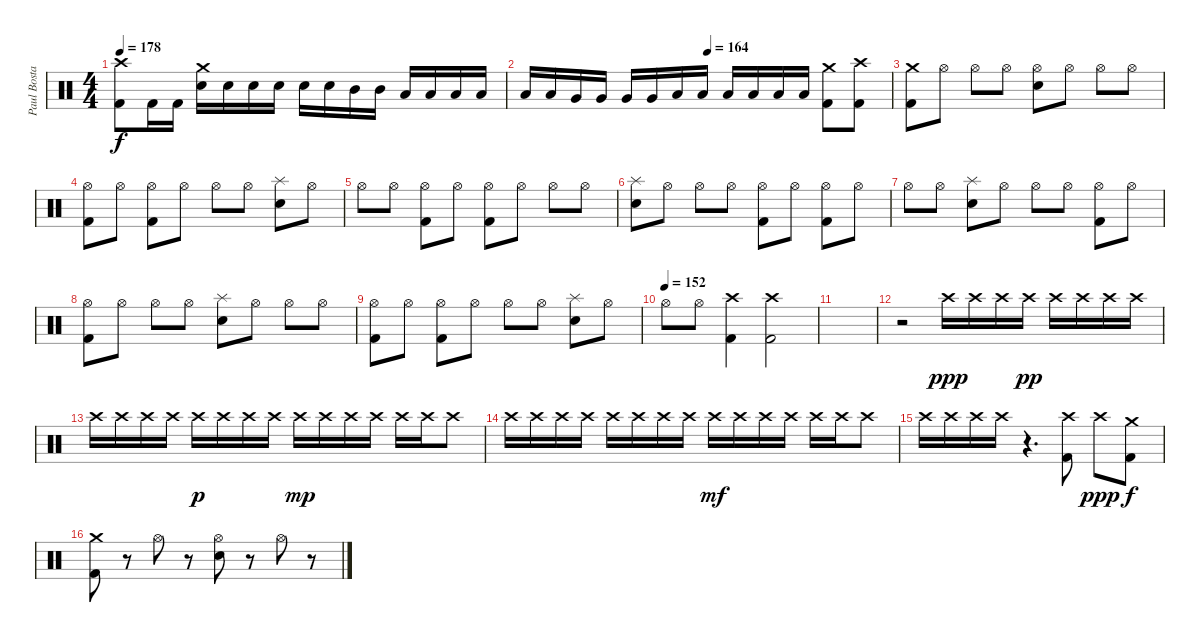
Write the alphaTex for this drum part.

\track ("Paul Bostaph" "Paul Bosta") {instrument percussion}
\staff {score}
\articulation defaults
\ts (4 4)
\tempo 178
\clef neutral
\ks c
("Kick (hit) 2" "Crash high (hit)").8{dy f} "Kick (hit) 2".16 "Kick (hit) 2".16 ("Crash medium (hit)" "Electric Snare (hit)").16 "Electric Snare (hit)".16 "Electric Snare (hit)".16 "Electric Snare (hit)".16 "Electric Snare (hit)".16 "Electric Snare (hit)".16 "Mid Tom (hit)".16 "Mid Tom (hit)".16 "Low Tom (hit)".16 "Low Tom (hit)".16 "Low Tom (hit)".16 "Low Tom (hit)".16 |
\tempo (164 0.5)
"Low Tom (hit)".16 "Low Tom (hit)".16 "Very Low Tom (hit)".16 "Very Low Tom (hit)".16 "Very Low Tom (hit)".16 "Very Low Tom (hit)".16 "Low Floor Tom (hit)".16 "Low Floor Tom (hit)".16 "Low Floor Tom (hit)".16 "Low Floor Tom (hit)".16 "Low Floor Tom (hit)".16 "Low Floor Tom (hit)".16 ("Crash medium (hit)" "Kick (hit) 2").8 ("Crash high (hit)" "Kick (hit) 2").8 |
("Kick (hit) 2" "Crash medium (hit)").8 "Hi-Hat (open)".8 "Hi-Hat (open)".8 "Hi-Hat (open)".8 ("Electric Snare (hit)" "Hi-Hat (open)").8 "Hi-Hat (open)".8 "Hi-Hat (open)".8 "Hi-Hat (open)".8 |
("Kick (hit) 2" "Hi-Hat (open)").8 "Hi-Hat (open)".8 ("Kick (hit) 2" "Hi-Hat (open)").8 "Hi-Hat (open)".8 "Hi-Hat (open)".8 "Hi-Hat (open)".8 ("Electric Snare (hit)" "Splash (hit)").8 "Hi-Hat (open)".8 |
"Hi-Hat (open)".8 "Hi-Hat (open)".8 ("Kick (hit) 2" "Hi-Hat (open)").8 "Hi-Hat (open)".8 ("Kick (hit) 2" "Hi-Hat (open)").8 "Hi-Hat (open)".8 "Hi-Hat (open)".8 "Hi-Hat (open)".8 |
("Electric Snare (hit)" "Splash (hit)").8 "Hi-Hat (open)".8 "Hi-Hat (open)".8 "Hi-Hat (open)".8 ("Kick (hit) 2" "Hi-Hat (open)").8 "Hi-Hat (open)".8 ("Kick (hit) 2" "Hi-Hat (open)").8 "Hi-Hat (open)".8 |
"Hi-Hat (open)".8 "Hi-Hat (open)".8 ("Electric Snare (hit)" "Splash (hit)").8 "Hi-Hat (open)".8 "Hi-Hat (open)".8 "Hi-Hat (open)".8 ("Kick (hit) 2" "Hi-Hat (open)").8 "Hi-Hat (open)".8 |
("Kick (hit) 2" "Hi-Hat (open)").8 "Hi-Hat (open)".8 "Hi-Hat (open)".8 "Hi-Hat (open)".8 ("Electric Snare (hit)" "Splash (hit)").8 "Hi-Hat (open)".8 "Hi-Hat (open)".8 "Hi-Hat (open)".8 |
("Kick (hit) 2" "Hi-Hat (open)").8 "Hi-Hat (open)".8 ("Kick (hit) 2" "Hi-Hat (open)").8 "Hi-Hat (open)".8 "Hi-Hat (open)".8 "Hi-Hat (open)".8 ("Electric Snare (hit)" "Splash (hit)").8 "Hi-Hat (open)".8 |
\tempo (152)
"Hi-Hat (open)".8 "Hi-Hat (open)".8 ("Crash high (hit)" "Kick (hit) 2").4 ("Crash high (hit)" "Kick (hit) 2").2 |
|
r.2 "Crash high (hit)".16{dy ppp} "Crash high (hit)".16 "Crash high (hit)".16 "Crash high (hit)".16{dy pp} "Crash high (hit)".16 "Crash high (hit)".16 "Crash high (hit)".16 "Crash high (hit)".16 |
"Crash high (hit)".16 "Crash high (hit)".16 "Crash high (hit)".16 "Crash high (hit)".16 "Crash high (hit)".16{dy p} "Crash high (hit)".16 "Crash high (hit)".16 "Crash high (hit)".16 "Crash high (hit)".16{dy mp} "Crash high (hit)".16 "Crash high (hit)".16 "Crash high (hit)".16 "Crash high (hit)".16 "Crash high (hit)".16 "Crash high (hit)".8 |
"Crash high (hit)".16 "Crash high (hit)".16 "Crash high (hit)".16 "Crash high (hit)".16 "Crash high (hit)".16 "Crash high (hit)".16 "Crash high (hit)".16 "Crash high (hit)".16 "Crash high (hit)".16{dy mf} "Crash high (hit)".16 "Crash high (hit)".16 "Crash high (hit)".16 "Crash high (hit)".16 "Crash high (hit)".16 "Crash high (hit)".8 |
"Crash high (hit)".16 "Crash high (hit)".16 "Crash high (hit)".16 "Crash high (hit)".16 r.4{d} ("Kick (hit) 2" "Crash high (hit)").8 "Crash high (hit)".8{dy ppp} ("Crash medium (hit)" "Kick (hit) 2").8{dy f} |
("Kick (hit) 2" "Crash medium (hit)").8 r.8 "Hi-Hat (open)".8 r.8 ("Electric Snare (hit)" "Hi-Hat (open)").8 r.8 "Hi-Hat (open)".8 r.8
